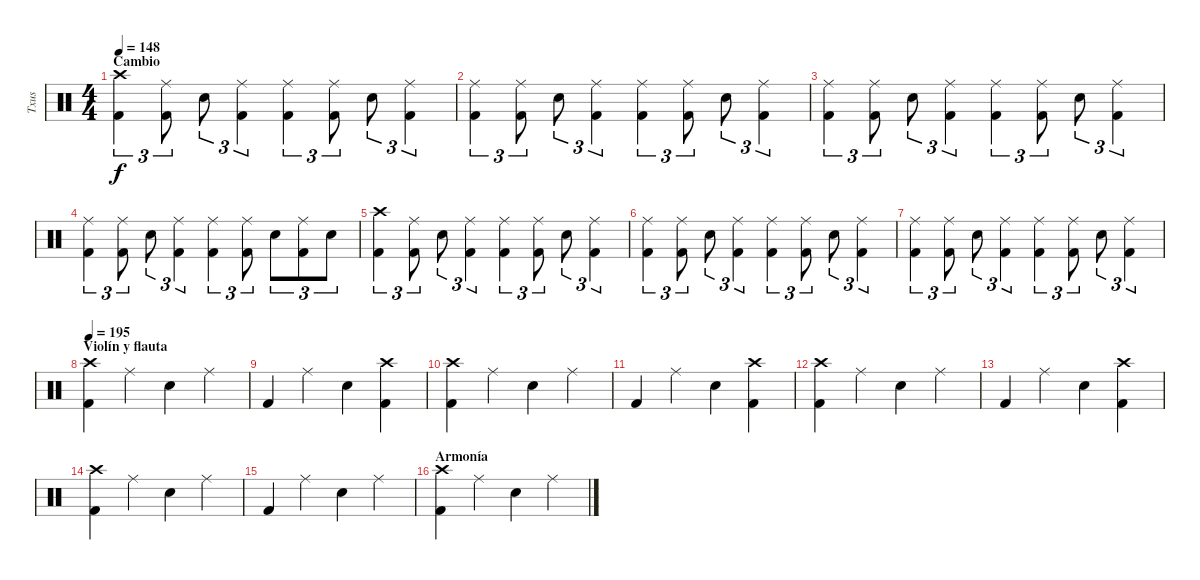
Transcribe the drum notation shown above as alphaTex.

\track ("Txus" "Txus") {instrument percussion}
\staff {score}
\articulation defaults
\ts (4 4)
\section ("" "Cambio")
\tempo 148
\clef neutral
\ks c
("Kick (hit) 2" "Crash high (hit)").4{tu (3 2) dy f} ("Kick (hit) 2" "Ride (middle)").8{tu (3 2)} "Electric Snare (hit)".8{tu (3 2)} ("Kick (hit) 2" "Ride (middle)").4{tu (3 2)} ("Kick (hit) 2" "Ride (middle)").4{tu (3 2)} ("Kick (hit) 2" "Ride (middle)").8{tu (3 2)} "Electric Snare (hit)".8{tu (3 2)} ("Kick (hit) 2" "Ride (middle)").4{tu (3 2)} |
("Kick (hit) 2" "Ride (middle)").4{tu (3 2)} ("Kick (hit) 2" "Ride (middle)").8{tu (3 2)} "Electric Snare (hit)".8{tu (3 2)} ("Kick (hit) 2" "Ride (middle)").4{tu (3 2)} ("Kick (hit) 2" "Ride (middle)").4{tu (3 2)} ("Kick (hit) 2" "Ride (middle)").8{tu (3 2)} "Electric Snare (hit)".8{tu (3 2)} ("Kick (hit) 2" "Ride (middle)").4{tu (3 2)} |
("Kick (hit) 2" "Ride (middle)").4{tu (3 2)} ("Kick (hit) 2" "Ride (middle)").8{tu (3 2)} "Electric Snare (hit)".8{tu (3 2)} ("Kick (hit) 2" "Ride (middle)").4{tu (3 2)} ("Kick (hit) 2" "Ride (middle)").4{tu (3 2)} ("Kick (hit) 2" "Ride (middle)").8{tu (3 2)} "Electric Snare (hit)".8{tu (3 2)} ("Kick (hit) 2" "Ride (middle)").4{tu (3 2)} |
("Kick (hit) 2" "Ride (middle)").4{tu (3 2)} ("Kick (hit) 2" "Ride (middle)").8{tu (3 2)} "Electric Snare (hit)".8{tu (3 2)} ("Kick (hit) 2" "Ride (middle)").4{tu (3 2)} ("Kick (hit) 2" "Ride (middle)").4{tu (3 2)} ("Kick (hit) 2" "Ride (middle)").8{tu (3 2)} "Electric Snare (hit)".8{tu (3 2)} ("Kick (hit) 2" "Ride (middle)").8{tu (3 2)} "Electric Snare (hit)".8{tu (3 2)} |
("Kick (hit) 2" "Crash high (hit)").4{tu (3 2)} ("Kick (hit) 2" "Ride (middle)").8{tu (3 2)} "Electric Snare (hit)".8{tu (3 2)} ("Kick (hit) 2" "Ride (middle)").4{tu (3 2)} ("Kick (hit) 2" "Ride (middle)").4{tu (3 2)} ("Kick (hit) 2" "Ride (middle)").8{tu (3 2)} "Electric Snare (hit)".8{tu (3 2)} ("Kick (hit) 2" "Ride (middle)").4{tu (3 2)} |
("Kick (hit) 2" "Ride (middle)").4{tu (3 2)} ("Kick (hit) 2" "Ride (middle)").8{tu (3 2)} "Electric Snare (hit)".8{tu (3 2)} ("Kick (hit) 2" "Ride (middle)").4{tu (3 2)} ("Kick (hit) 2" "Ride (middle)").4{tu (3 2)} ("Kick (hit) 2" "Ride (middle)").8{tu (3 2)} "Electric Snare (hit)".8{tu (3 2)} ("Kick (hit) 2" "Ride (middle)").4{tu (3 2)} |
("Kick (hit) 2" "Ride (middle)").4{tu (3 2)} ("Kick (hit) 2" "Ride (middle)").8{tu (3 2)} "Electric Snare (hit)".8{tu (3 2)} ("Kick (hit) 2" "Ride (middle)").4{tu (3 2)} ("Kick (hit) 2" "Ride (middle)").4{tu (3 2)} ("Kick (hit) 2" "Ride (middle)").8{tu (3 2)} "Electric Snare (hit)".8{tu (3 2)} ("Kick (hit) 2" "Ride (middle)").4{tu (3 2)} |
\section ("" "Violín y flauta ")
\tempo 195
("Kick (hit) 2" "Crash high (hit)").4 "Ride (middle)".4 "Electric Snare (hit)".4 "Ride (middle)".4 |
"Kick (hit) 2".4 "Ride (middle)".4 "Electric Snare (hit)".4 ("Kick (hit) 2" "Crash high (hit)").4 |
("Kick (hit) 2" "Crash high (hit)").4 "Ride (middle)".4 "Electric Snare (hit)".4 "Ride (middle)".4 |
"Kick (hit) 2".4 "Ride (middle)".4 "Electric Snare (hit)".4 ("Kick (hit) 2" "Crash high (hit)").4 |
("Kick (hit) 2" "Crash high (hit)").4 "Ride (middle)".4 "Electric Snare (hit)".4 "Ride (middle)".4 |
"Kick (hit) 2".4 "Ride (middle)".4 "Electric Snare (hit)".4 ("Kick (hit) 2" "Crash high (hit)").4 |
("Kick (hit) 2" "Crash high (hit)").4 "Ride (middle)".4 "Electric Snare (hit)".4 "Ride (middle)".4 |
"Kick (hit) 2".4 "Ride (middle)".4 "Electric Snare (hit)".4 "Ride (middle)".4 |
\section ("" "Armonía")
("Kick (hit) 2" "Crash high (hit)").4 "Ride (middle)".4 "Electric Snare (hit)".4 "Ride (middle)".4
